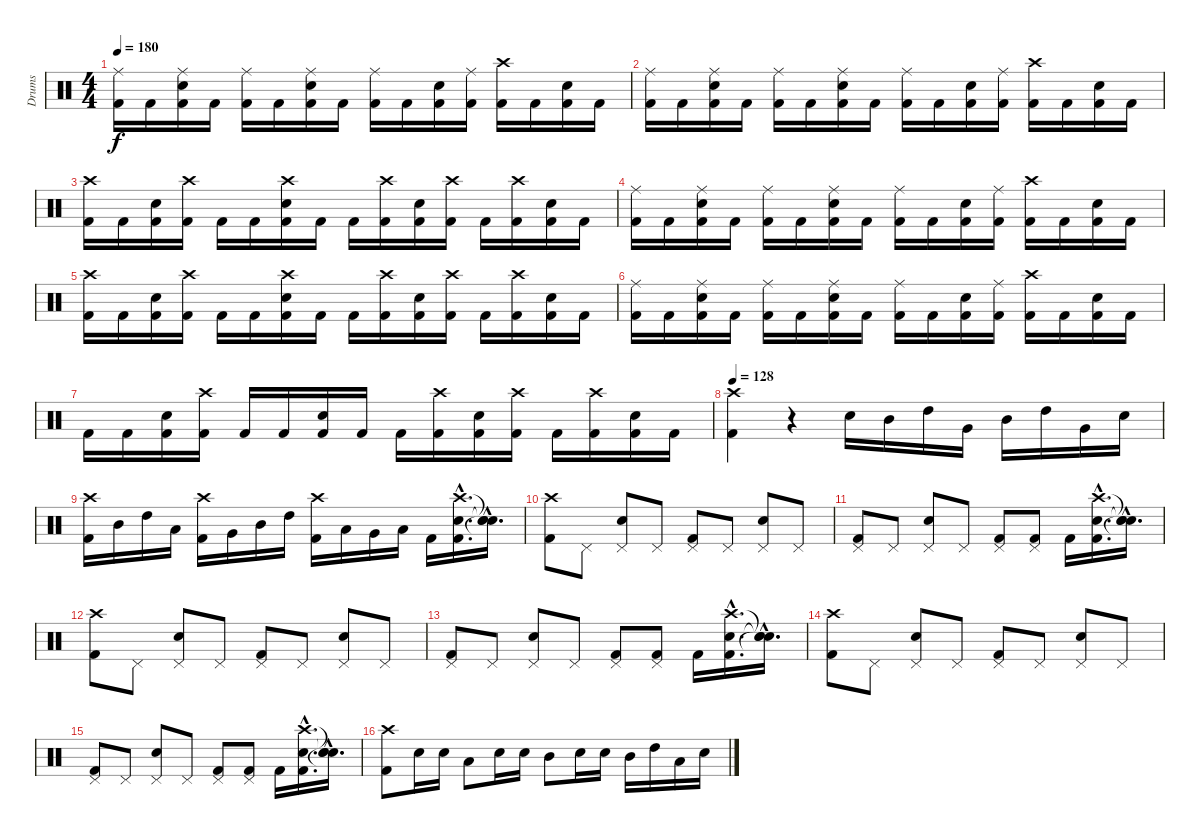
\track ("Drums" "Drums") {instrument percussion}
\staff {score}
\articulation defaults
\ts (4 4)
\tempo 180
\clef neutral
\ks c
("Ride (middle)" "Kick (hit) 2").16{dy f} "Kick (hit) 2".16 ("Ride (middle)" "Electric Snare (hit)" "Kick (hit) 2").16 "Kick (hit) 2".16 ("Ride (middle)" "Kick (hit) 2").16 "Kick (hit) 2".16 ("Ride (middle)" "Electric Snare (hit)" "Kick (hit) 2").16 "Kick (hit) 2".16 ("Ride (middle)" "Kick (hit) 2").16 "Kick (hit) 2".16 ("Electric Snare (hit)" "Kick (hit) 2").16 ("Ride (middle)" "Kick (hit) 2").16 ("Crash high (hit)" "Kick (hit) 2").16 "Kick (hit) 2".16 ("Electric Snare (hit)" "Kick (hit) 2").16 "Kick (hit) 2".16 |
("Ride (middle)" "Kick (hit) 2").16 "Kick (hit) 2".16 ("Ride (middle)" "Electric Snare (hit)" "Kick (hit) 2").16 "Kick (hit) 2".16 ("Ride (middle)" "Kick (hit) 2").16 "Kick (hit) 2".16 ("Ride (middle)" "Electric Snare (hit)" "Kick (hit) 2").16 "Kick (hit) 2".16 ("Ride (middle)" "Kick (hit) 2").16 "Kick (hit) 2".16 ("Electric Snare (hit)" "Kick (hit) 2").16 ("Ride (middle)" "Kick (hit) 2").16 ("Crash high (hit)" "Kick (hit) 2").16 "Kick (hit) 2".16 ("Electric Snare (hit)" "Kick (hit) 2").16 "Kick (hit) 2".16 |
("Crash high (hit)" "Kick (hit) 2").16 "Kick (hit) 2".16 ("Electric Snare (hit)" "Kick (hit) 2").16 ("Crash high (hit)" "Kick (hit) 2").16 "Kick (hit) 2".16 "Kick (hit) 2".16 ("Crash high (hit)" "Electric Snare (hit)" "Kick (hit) 2").16 "Kick (hit) 2".16 "Kick (hit) 2".16 ("Crash high (hit)" "Kick (hit) 2").16 ("Electric Snare (hit)" "Kick (hit) 2").16 ("Crash high (hit)" "Kick (hit) 2").16 "Kick (hit) 2".16 ("Crash high (hit)" "Kick (hit) 2").16 ("Electric Snare (hit)" "Kick (hit) 2").16 "Kick (hit) 2".16 |
("Ride (middle)" "Kick (hit) 2").16 "Kick (hit) 2".16 ("Ride (middle)" "Electric Snare (hit)" "Kick (hit) 2").16 "Kick (hit) 2".16 ("Ride (middle)" "Kick (hit) 2").16 "Kick (hit) 2".16 ("Ride (middle)" "Electric Snare (hit)" "Kick (hit) 2").16 "Kick (hit) 2".16 ("Ride (middle)" "Kick (hit) 2").16 "Kick (hit) 2".16 ("Electric Snare (hit)" "Kick (hit) 2").16 ("Ride (middle)" "Kick (hit) 2").16 ("Crash high (hit)" "Kick (hit) 2").16 "Kick (hit) 2".16 ("Electric Snare (hit)" "Kick (hit) 2").16 "Kick (hit) 2".16 |
("Crash high (hit)" "Kick (hit) 2").16 "Kick (hit) 2".16 ("Electric Snare (hit)" "Kick (hit) 2").16 ("Crash high (hit)" "Kick (hit) 2").16 "Kick (hit) 2".16 "Kick (hit) 2".16 ("Crash high (hit)" "Electric Snare (hit)" "Kick (hit) 2").16 "Kick (hit) 2".16 "Kick (hit) 2".16 ("Crash high (hit)" "Kick (hit) 2").16 ("Electric Snare (hit)" "Kick (hit) 2").16 ("Crash high (hit)" "Kick (hit) 2").16 "Kick (hit) 2".16 ("Crash high (hit)" "Kick (hit) 2").16 ("Electric Snare (hit)" "Kick (hit) 2").16 "Kick (hit) 2".16 |
("Ride (middle)" "Kick (hit) 2").16 "Kick (hit) 2".16 ("Ride (middle)" "Electric Snare (hit)" "Kick (hit) 2").16 "Kick (hit) 2".16 ("Ride (middle)" "Kick (hit) 2").16 "Kick (hit) 2".16 ("Ride (middle)" "Electric Snare (hit)" "Kick (hit) 2").16 "Kick (hit) 2".16 ("Ride (middle)" "Kick (hit) 2").16 "Kick (hit) 2".16 ("Electric Snare (hit)" "Kick (hit) 2").16 ("Ride (middle)" "Kick (hit) 2").16 ("Crash high (hit)" "Kick (hit) 2").16 "Kick (hit) 2".16 ("Electric Snare (hit)" "Kick (hit) 2").16 "Kick (hit) 2".16 |
"Kick (hit) 2".16 "Kick (hit) 2".16 ("Electric Snare (hit)" "Kick (hit) 2").16 ("Crash high (hit)" "Kick (hit) 2").16 "Kick (hit) 2".16 "Kick (hit) 2".16 ("Electric Snare (hit)" "Kick (hit) 2").16 "Kick (hit) 2".16 "Kick (hit) 2".16 ("Crash high (hit)" "Kick (hit) 2").16 ("Electric Snare (hit)" "Kick (hit) 2").16 ("Crash high (hit)" "Kick (hit) 2").16 "Kick (hit) 2".16 ("Crash high (hit)" "Kick (hit) 2").16 ("Electric Snare (hit)" "Kick (hit) 2").16 "Kick (hit) 2".16 |
\tempo 128
("Crash high (hit)" "Kick (hit) 2").4 r.4 "Electric Snare (hit)".16 "Mid Tom (hit)".16 "High Tom (hit)".16 "Very Low Tom (hit)".16 "Mid Tom (hit)".16 "High Tom (hit)".16 "Very Low Tom (hit)".16 "Electric Snare (hit)".16 |
("Crash high (hit)" "Kick (hit) 2").16 "Mid Tom (hit)".16 "High Tom (hit)".16 "Low Tom (hit)".16 ("Crash high (hit)" "Kick (hit) 2").16 "Very Low Tom (hit)".16 "Mid Tom (hit)".16 "High Tom (hit)".16 ("Crash high (hit)" "Kick (hit) 2").16 "Low Tom (hit)".16 "Very Low Tom (hit)".16 "Low Floor Tom (hit)".16 "Kick (hit) 2".16 ("Crash high (hit)"{hac} "Electric Snare (hit)"{hac} "Kick (hit) 2"{hac}).16{d} ("Snare (hit)"{hac t} "Snare (hit)"{hac t} "Snare (hit)"{hac t}).16{d} |
("Crash high (hit)" "Kick (hit) 2").8 "Pedal Hi-Hat (hit)".8 ("Pedal Hi-Hat (hit)" "Electric Snare (hit)").8 "Pedal Hi-Hat (hit)".8 ("Pedal Hi-Hat (hit)" "Kick (hit) 2").8 "Pedal Hi-Hat (hit)".8 ("Pedal Hi-Hat (hit)" "Electric Snare (hit)").8 "Pedal Hi-Hat (hit)".8 |
("Pedal Hi-Hat (hit)" "Kick (hit) 2").8 "Pedal Hi-Hat (hit)".8 ("Pedal Hi-Hat (hit)" "Electric Snare (hit)").8 "Pedal Hi-Hat (hit)".8 ("Pedal Hi-Hat (hit)" "Kick (hit) 2").8 ("Pedal Hi-Hat (hit)" "Kick (hit) 2").8 "Kick (hit) 2".16 ("Crash high (hit)"{hac} "Electric Snare (hit)"{hac} "Kick (hit) 2"{hac}).16{d} ("Snare (hit)"{hac t} "Snare (hit)"{hac t} "Snare (hit)"{hac t}).16{d} |
("Crash high (hit)" "Kick (hit) 2").8 "Pedal Hi-Hat (hit)".8 ("Pedal Hi-Hat (hit)" "Electric Snare (hit)").8 "Pedal Hi-Hat (hit)".8 ("Pedal Hi-Hat (hit)" "Kick (hit) 2").8 "Pedal Hi-Hat (hit)".8 ("Pedal Hi-Hat (hit)" "Electric Snare (hit)").8 "Pedal Hi-Hat (hit)".8 |
("Pedal Hi-Hat (hit)" "Kick (hit) 2").8 "Pedal Hi-Hat (hit)".8 ("Pedal Hi-Hat (hit)" "Electric Snare (hit)").8 "Pedal Hi-Hat (hit)".8 ("Pedal Hi-Hat (hit)" "Kick (hit) 2").8 ("Pedal Hi-Hat (hit)" "Kick (hit) 2").8 "Kick (hit) 2".16 ("Crash high (hit)"{hac} "Electric Snare (hit)"{hac} "Kick (hit) 2"{hac}).16{d} ("Snare (hit)"{hac t} "Snare (hit)"{hac t} "Snare (hit)"{hac t}).16{d} |
("Crash high (hit)" "Kick (hit) 2").8 "Pedal Hi-Hat (hit)".8 ("Pedal Hi-Hat (hit)" "Electric Snare (hit)").8 "Pedal Hi-Hat (hit)".8 ("Pedal Hi-Hat (hit)" "Kick (hit) 2").8 "Pedal Hi-Hat (hit)".8 ("Pedal Hi-Hat (hit)" "Electric Snare (hit)").8 "Pedal Hi-Hat (hit)".8 |
("Pedal Hi-Hat (hit)" "Kick (hit) 2").8 "Pedal Hi-Hat (hit)".8 ("Pedal Hi-Hat (hit)" "Electric Snare (hit)").8 "Pedal Hi-Hat (hit)".8 ("Pedal Hi-Hat (hit)" "Kick (hit) 2").8 ("Pedal Hi-Hat (hit)" "Kick (hit) 2").8 "Kick (hit) 2".16 ("Crash high (hit)"{hac} "Electric Snare (hit)"{hac} "Kick (hit) 2"{hac}).16{d} ("Snare (hit)"{hac t} "Snare (hit)"{hac t} "Snare (hit)"{hac t}).16{d} |
("Crash high (hit)" "Kick (hit) 2").8 "Electric Snare (hit)".16 "Electric Snare (hit)".16 "Low Tom (hit)".8 "Electric Snare (hit)".16 "Electric Snare (hit)".16 "Mid Tom (hit)".8 "Electric Snare (hit)".16 "Electric Snare (hit)".16 "Mid Tom (hit)".16 "High Tom (hit)".16 "Low Tom (hit)".16 "Electric Snare (hit)".16
